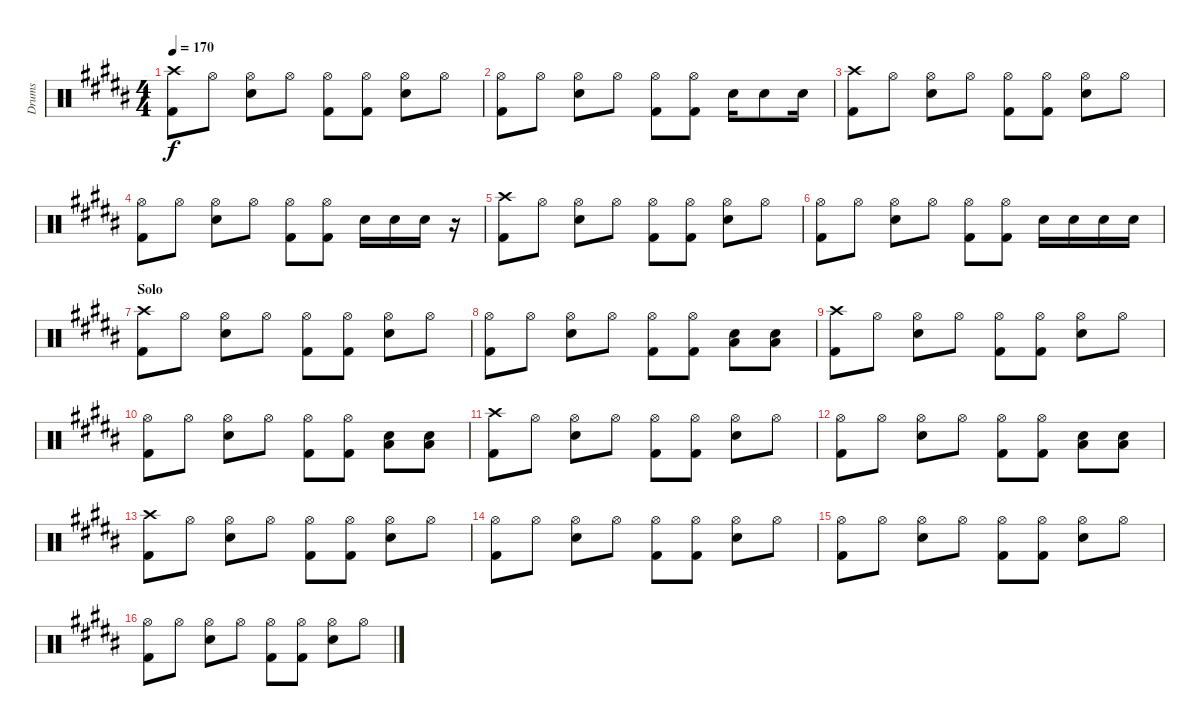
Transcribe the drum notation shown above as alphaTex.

\track ("Drums" "Drums") {instrument percussion}
\staff {score}
\articulation defaults
\ts (4 4)
\tempo 170
\clef neutral
\ks b
("Crash high (hit)" "Kick (hit) 2").8{dy f} "Hi-Hat (open)".8 ("Hi-Hat (open)" "Electric Snare (hit)").8 "Hi-Hat (open)".8 ("Hi-Hat (open)" "Kick (hit) 2").8 ("Hi-Hat (open)" "Kick (hit) 2").8 ("Hi-Hat (open)" "Electric Snare (hit)").8 "Hi-Hat (open)".8 |
("Hi-Hat (open)" "Kick (hit) 2").8 "Hi-Hat (open)".8 ("Hi-Hat (open)" "Electric Snare (hit)").8 "Hi-Hat (open)".8 ("Hi-Hat (open)" "Kick (hit) 2").8 ("Hi-Hat (open)" "Kick (hit) 2").8 "Electric Snare (hit)".16 "Electric Snare (hit)".8 "Electric Snare (hit)".16 |
("Crash high (hit)" "Kick (hit) 2").8 "Hi-Hat (open)".8 ("Hi-Hat (open)" "Electric Snare (hit)").8 "Hi-Hat (open)".8 ("Hi-Hat (open)" "Kick (hit) 2").8 ("Hi-Hat (open)" "Kick (hit) 2").8 ("Hi-Hat (open)" "Electric Snare (hit)").8 "Hi-Hat (open)".8 |
("Hi-Hat (open)" "Kick (hit) 2").8 "Hi-Hat (open)".8 ("Hi-Hat (open)" "Electric Snare (hit)").8 "Hi-Hat (open)".8 ("Hi-Hat (open)" "Kick (hit) 2").8 ("Hi-Hat (open)" "Kick (hit) 2").8 "Electric Snare (hit)".16 "Electric Snare (hit)".16 "Electric Snare (hit)".16 r.16 |
("Crash high (hit)" "Kick (hit) 2").8 "Hi-Hat (open)".8 ("Hi-Hat (open)" "Electric Snare (hit)").8 "Hi-Hat (open)".8 ("Hi-Hat (open)" "Kick (hit) 2").8 ("Hi-Hat (open)" "Kick (hit) 2").8 ("Hi-Hat (open)" "Electric Snare (hit)").8 "Hi-Hat (open)".8 |
("Hi-Hat (open)" "Kick (hit) 2").8 "Hi-Hat (open)".8 ("Hi-Hat (open)" "Electric Snare (hit)").8 "Hi-Hat (open)".8 ("Hi-Hat (open)" "Kick (hit) 2").8 ("Hi-Hat (open)" "Kick (hit) 2").8 "Electric Snare (hit)".16 "Electric Snare (hit)".16 "Electric Snare (hit)".16 "Electric Snare (hit)".16 |
\section ("" "Solo")
("Crash high (hit)" "Kick (hit) 2").8 "Hi-Hat (open)".8 ("Hi-Hat (open)" "Electric Snare (hit)").8 "Hi-Hat (open)".8 ("Hi-Hat (open)" "Kick (hit) 2").8 ("Hi-Hat (open)" "Kick (hit) 2").8 ("Hi-Hat (open)" "Electric Snare (hit)").8 "Hi-Hat (open)".8 |
("Hi-Hat (open)" "Kick (hit) 2").8 "Hi-Hat (open)".8 ("Hi-Hat (open)" "Electric Snare (hit)").8 "Hi-Hat (open)".8 ("Hi-Hat (open)" "Kick (hit) 2").8 ("Hi-Hat (open)" "Kick (hit) 2").8 ("Low Tom (hit)" "Electric Snare (hit)").8 ("Low Tom (hit)" "Electric Snare (hit)").8 |
("Crash high (hit)" "Kick (hit) 2").8 "Hi-Hat (open)".8 ("Hi-Hat (open)" "Electric Snare (hit)").8 "Hi-Hat (open)".8 ("Hi-Hat (open)" "Kick (hit) 2").8 ("Hi-Hat (open)" "Kick (hit) 2").8 ("Hi-Hat (open)" "Electric Snare (hit)").8 "Hi-Hat (open)".8 |
("Hi-Hat (open)" "Kick (hit) 2").8 "Hi-Hat (open)".8 ("Hi-Hat (open)" "Electric Snare (hit)").8 "Hi-Hat (open)".8 ("Hi-Hat (open)" "Kick (hit) 2").8 ("Hi-Hat (open)" "Kick (hit) 2").8 ("Low Tom (hit)" "Electric Snare (hit)").8 ("Low Tom (hit)" "Electric Snare (hit)").8 |
("Crash high (hit)" "Kick (hit) 2").8 "Hi-Hat (open)".8 ("Hi-Hat (open)" "Electric Snare (hit)").8 "Hi-Hat (open)".8 ("Hi-Hat (open)" "Kick (hit) 2").8 ("Hi-Hat (open)" "Kick (hit) 2").8 ("Hi-Hat (open)" "Electric Snare (hit)").8 "Hi-Hat (open)".8 |
("Hi-Hat (open)" "Kick (hit) 2").8 "Hi-Hat (open)".8 ("Hi-Hat (open)" "Electric Snare (hit)").8 "Hi-Hat (open)".8 ("Hi-Hat (open)" "Kick (hit) 2").8 ("Hi-Hat (open)" "Kick (hit) 2").8 ("Low Tom (hit)" "Electric Snare (hit)").8 ("Low Tom (hit)" "Electric Snare (hit)").8 |
("Crash high (hit)" "Kick (hit) 2").8 "Hi-Hat (open)".8 ("Hi-Hat (open)" "Electric Snare (hit)").8 "Hi-Hat (open)".8 ("Hi-Hat (open)" "Kick (hit) 2").8 ("Hi-Hat (open)" "Kick (hit) 2").8 ("Hi-Hat (open)" "Electric Snare (hit)").8 "Hi-Hat (open)".8 |
("Hi-Hat (open)" "Kick (hit) 2").8 "Hi-Hat (open)".8 ("Hi-Hat (open)" "Electric Snare (hit)").8 "Hi-Hat (open)".8 ("Hi-Hat (open)" "Kick (hit) 2").8 ("Hi-Hat (open)" "Kick (hit) 2").8 ("Hi-Hat (open)" "Electric Snare (hit)").8 "Hi-Hat (open)".8 |
("Hi-Hat (open)" "Kick (hit) 2").8 "Hi-Hat (open)".8 ("Hi-Hat (open)" "Electric Snare (hit)").8 "Hi-Hat (open)".8 ("Hi-Hat (open)" "Kick (hit) 2").8 ("Hi-Hat (open)" "Kick (hit) 2").8 ("Hi-Hat (open)" "Electric Snare (hit)").8 "Hi-Hat (open)".8 |
("Hi-Hat (open)" "Kick (hit) 2").8 "Hi-Hat (open)".8 ("Hi-Hat (open)" "Electric Snare (hit)").8 "Hi-Hat (open)".8 ("Hi-Hat (open)" "Kick (hit) 2").8 ("Hi-Hat (open)" "Kick (hit) 2").8 ("Hi-Hat (open)" "Electric Snare (hit)").8 "Hi-Hat (open)".8
